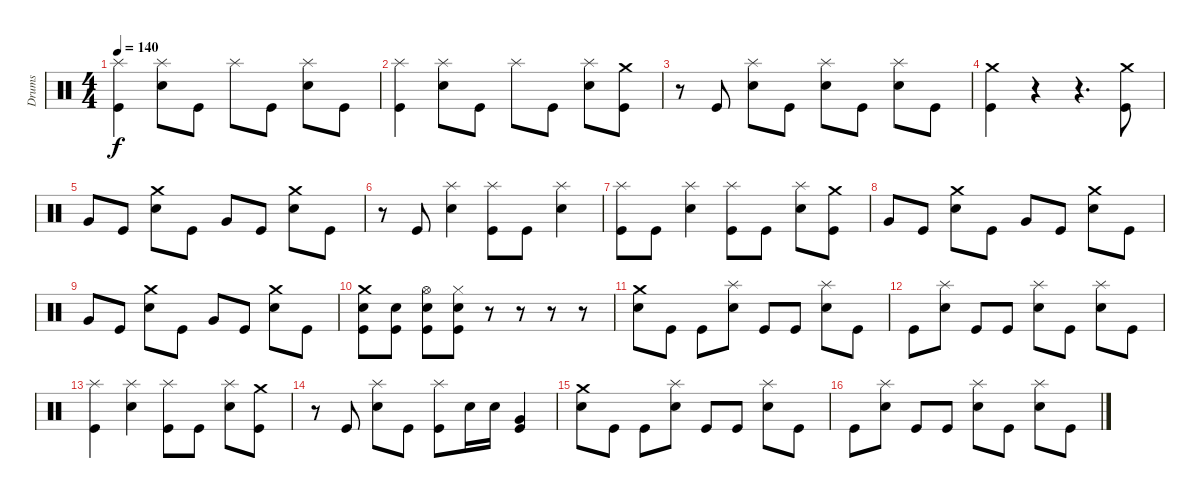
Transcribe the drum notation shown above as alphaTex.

\track ("Drums" "Drums") {instrument percussion}
\staff {score}
\articulation defaults
\ts (4 4)
\tempo 140
\clef neutral
\ks c
("Splash (hit)" "Kick (hit)").4{dy f} ("Splash (hit)" "Electric Snare (hit)").8 "Kick (hit)".8 "Splash (hit)".8 "Kick (hit)".8 ("Splash (hit)" "Electric Snare (hit)").8 "Kick (hit)".8 |
("Splash (hit)" "Kick (hit)").4 ("Splash (hit)" "Electric Snare (hit)").8 "Kick (hit)".8 "Splash (hit)".8 "Kick (hit)".8 ("Splash (hit)" "Electric Snare (hit)").8 ("Crash medium (hit)" "Kick (hit)").8 |
r.8 "Kick (hit)".8 ("Splash (hit)" "Electric Snare (hit)").8 "Kick (hit)".8 ("Splash (hit)" "Electric Snare (hit)").8 "Kick (hit)".8 ("Splash (hit)" "Electric Snare (hit)").8 "Kick (hit)".8 |
("Crash medium (hit)" "Kick (hit)").4 r.4 r.4{d} ("Crash medium (hit)" "Kick (hit)").8 |
"Very Low Tom (hit)".8 "Kick (hit)".8 ("Crash medium (hit)" "Electric Snare (hit)").8 "Kick (hit)".8 "Very Low Tom (hit)".8 "Kick (hit)".8 ("Crash medium (hit)" "Electric Snare (hit)").8 "Kick (hit)".8 |
r.8 "Kick (hit)".8 ("Splash (hit)" "Electric Snare (hit)").4 ("Splash (hit)" "Kick (hit)").8 "Kick (hit)".8 ("Splash (hit)" "Electric Snare (hit)").4 |
("Splash (hit)" "Kick (hit)").8 "Kick (hit)".8 ("Splash (hit)" "Electric Snare (hit)").4 ("Splash (hit)" "Kick (hit)").8 "Kick (hit)".8 ("Splash (hit)" "Electric Snare (hit)").8 ("Crash medium (hit)" "Kick (hit)").8 |
"Very Low Tom (hit)".8 "Kick (hit)".8 ("Crash medium (hit)" "Electric Snare (hit)").8 "Kick (hit)".8 "Very Low Tom (hit)".8 "Kick (hit)".8 ("Crash medium (hit)" "Electric Snare (hit)").8 "Kick (hit)".8 |
"Very Low Tom (hit)".8 "Kick (hit)".8 ("Crash medium (hit)" "Electric Snare (hit)").8 "Kick (hit)".8 "Very Low Tom (hit)".8 "Kick (hit)".8 ("Crash medium (hit)" "Electric Snare (hit)").8 "Kick (hit)".8 |
("Crash medium (hit)" "Electric Snare (hit)" "Kick (hit)").8 ("Electric Snare (hit)" "Kick (hit)").8 ("Hi-Hat (open)" "Electric Snare (hit)" "Kick (hit)").8 ("Hi-Hat (closed)" "Electric Snare (hit)" "Kick (hit)").8 r.8 r.8 r.8 r.8 |
("Crash medium (hit)" "Electric Snare (hit)").8 "Kick (hit)".8 "Kick (hit)".8 ("Splash (hit)" "Electric Snare (hit)").8 "Kick (hit)".8 "Kick (hit)".8 ("Splash (hit)" "Electric Snare (hit)").8 "Kick (hit)".8 |
"Kick (hit)".8 ("Splash (hit)" "Electric Snare (hit)").8 "Kick (hit)".8 "Kick (hit)".8 ("Splash (hit)" "Electric Snare (hit)").8 "Kick (hit)".8 ("Splash (hit)" "Electric Snare (hit)").8 "Kick (hit)".8 |
("Splash (hit)" "Kick (hit)").4 ("Splash (hit)" "Electric Snare (hit)").4 ("Splash (hit)" "Kick (hit)").8 "Kick (hit)".8 ("Splash (hit)" "Electric Snare (hit)").8 ("Crash medium (hit)" "Kick (hit)").8 |
r.8 "Kick (hit)".8 ("Splash (hit)" "Electric Snare (hit)").8 "Kick (hit)".8 ("Splash (hit)" "Kick (hit)").8 "Electric Snare (hit)".16 "Electric Snare (hit)".16 ("Very Low Tom (hit)" "Kick (hit)").4 |
("Crash medium (hit)" "Electric Snare (hit)").8 "Kick (hit)".8 "Kick (hit)".8 ("Splash (hit)" "Electric Snare (hit)").8 "Kick (hit)".8 "Kick (hit)".8 ("Splash (hit)" "Electric Snare (hit)").8 "Kick (hit)".8 |
"Kick (hit)".8 ("Splash (hit)" "Electric Snare (hit)").8 "Kick (hit)".8 "Kick (hit)".8 ("Splash (hit)" "Electric Snare (hit)").8 "Kick (hit)".8 ("Splash (hit)" "Electric Snare (hit)").8 "Kick (hit)".8
